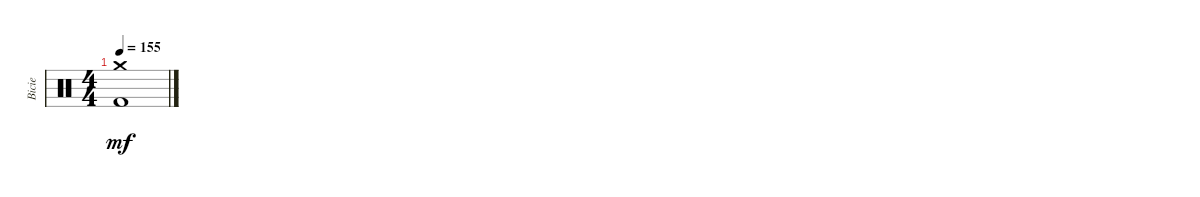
\track ("Bicie" "Bicie") {instrument percussion}
\staff {score}
\articulation defaults
\ts (4 4)
\tempo 155
\clef neutral
\ks c
("Crash medium (hit)" "Kick (hit) 2").1{dy mf}
